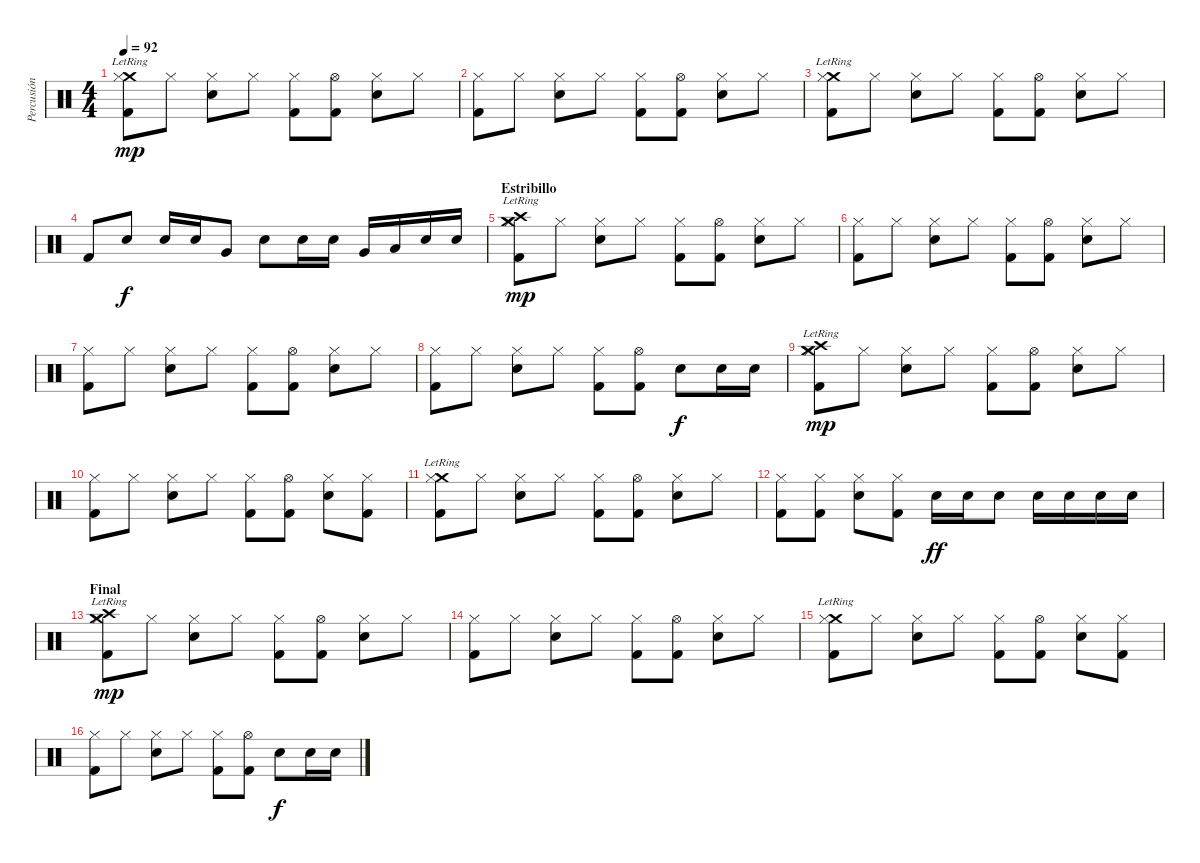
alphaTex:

\track ("Percusión" "Percusión") {instrument percussion}
\staff {score}
\articulation defaults
\ts (4 4)
\tempo 92
\clef neutral
\ks c
("Crash medium (hit)"{lr} "Kick (hit) 2" "Hi-Hat (closed)").8{dy mp} "Hi-Hat (closed)".8 ("Snare (hit) 2" "Hi-Hat (closed)").8 "Hi-Hat (closed)".8 ("Kick (hit) 2" "Hi-Hat (closed)").8 ("Kick (hit) 2" "Hi-Hat (open)").8 ("Snare (hit) 2" "Hi-Hat (closed)").8 "Hi-Hat (closed)".8 |
("Kick (hit) 2" "Hi-Hat (closed)").8 "Hi-Hat (closed)".8 ("Snare (hit) 2" "Hi-Hat (closed)").8 "Hi-Hat (closed)".8 ("Kick (hit) 2" "Hi-Hat (closed)").8 ("Kick (hit) 2" "Hi-Hat (open)").8 ("Snare (hit) 2" "Hi-Hat (closed)").8 "Hi-Hat (closed)".8 |
("Crash medium (hit)"{lr} "Kick (hit) 2" "Hi-Hat (closed)").8 "Hi-Hat (closed)".8 ("Snare (hit) 2" "Hi-Hat (closed)").8 "Hi-Hat (closed)".8 ("Kick (hit) 2" "Hi-Hat (closed)").8 ("Kick (hit) 2" "Hi-Hat (open)").8 ("Snare (hit) 2" "Hi-Hat (closed)").8 "Hi-Hat (closed)".8 |
"Kick (hit) 2".8 "Snare (hit) 2".8{dy f} "Snare (hit) 2".16 "Snare (hit) 2".16 "Very Low Tom (hit)".8 "Snare (hit) 2".8 "Snare (hit) 2".16 "Snare (hit) 2".16 "Very Low Tom (hit)".16 "Low Floor Tom (hit)".16 "Snare (hit) 2".16 "Snare (hit) 2".16 |
\section ("" "Estribillo")
("Crash high (hit)"{lr} "Crash medium (hit)" "Kick (hit) 2" "Hi-Hat (closed)").8{dy mp} "Hi-Hat (closed)".8 ("Snare (hit) 2" "Hi-Hat (closed)").8 "Hi-Hat (closed)".8 ("Kick (hit) 2" "Hi-Hat (closed)").8 ("Kick (hit) 2" "Hi-Hat (open)").8 ("Snare (hit) 2" "Hi-Hat (closed)").8 "Hi-Hat (closed)".8 |
("Kick (hit) 2" "Hi-Hat (closed)").8 "Hi-Hat (closed)".8 ("Snare (hit) 2" "Hi-Hat (closed)").8 "Hi-Hat (closed)".8 ("Kick (hit) 2" "Hi-Hat (closed)").8 ("Kick (hit) 2" "Hi-Hat (open)").8 ("Snare (hit) 2" "Hi-Hat (closed)").8 "Hi-Hat (closed)".8 |
("Kick (hit) 2" "Hi-Hat (closed)").8 "Hi-Hat (closed)".8 ("Snare (hit) 2" "Hi-Hat (closed)").8 "Hi-Hat (closed)".8 ("Kick (hit) 2" "Hi-Hat (closed)").8 ("Kick (hit) 2" "Hi-Hat (open)").8 ("Snare (hit) 2" "Hi-Hat (closed)").8 "Hi-Hat (closed)".8 |
("Kick (hit) 2" "Hi-Hat (closed)").8 "Hi-Hat (closed)".8 ("Snare (hit) 2" "Hi-Hat (closed)").8 "Hi-Hat (closed)".8 ("Kick (hit) 2" "Hi-Hat (closed)").8 ("Kick (hit) 2" "Hi-Hat (open)").8 "Snare (hit) 2".8{dy f} "Snare (hit) 2".16 "Snare (hit) 2".16 |
("Crash high (hit)"{lr} "Crash medium (hit)" "Kick (hit) 2" "Hi-Hat (closed)").8{dy mp} "Hi-Hat (closed)".8 ("Snare (hit) 2" "Hi-Hat (closed)").8 "Hi-Hat (closed)".8 ("Kick (hit) 2" "Hi-Hat (closed)").8 ("Kick (hit) 2" "Hi-Hat (open)").8 ("Snare (hit) 2" "Hi-Hat (closed)").8 "Hi-Hat (closed)".8 |
("Kick (hit) 2" "Hi-Hat (closed)").8 "Hi-Hat (closed)".8 ("Snare (hit) 2" "Hi-Hat (closed)").8 "Hi-Hat (closed)".8 ("Kick (hit) 2" "Hi-Hat (closed)").8 ("Kick (hit) 2" "Hi-Hat (open)").8 ("Snare (hit) 2" "Hi-Hat (closed)").8 ("Kick (hit) 2" "Hi-Hat (closed)").8 |
("Crash medium (hit)"{lr} "Kick (hit) 2" "Hi-Hat (closed)").8 "Hi-Hat (closed)".8 ("Snare (hit) 2" "Hi-Hat (closed)").8 "Hi-Hat (closed)".8 ("Kick (hit) 2" "Hi-Hat (closed)").8 ("Kick (hit) 2" "Hi-Hat (open)").8 ("Snare (hit) 2" "Hi-Hat (closed)").8 "Hi-Hat (closed)".8 |
("Kick (hit) 2" "Hi-Hat (closed)").8 ("Kick (hit) 2" "Hi-Hat (closed)").8 ("Snare (hit) 2" "Hi-Hat (closed)").8 ("Kick (hit) 2" "Hi-Hat (closed)").8 "Snare (hit) 2".16{dy ff} "Snare (hit) 2".16 "Snare (hit) 2".8 "Snare (hit) 2".16 "Snare (hit) 2".16 "Snare (hit) 2".16 "Snare (hit) 2".16 |
\section ("" "Final")
("Crash high (hit)"{lr} "Crash medium (hit)" "Kick (hit) 2" "Hi-Hat (closed)").8{dy mp} "Hi-Hat (closed)".8 ("Snare (hit) 2" "Hi-Hat (closed)").8 "Hi-Hat (closed)".8 ("Kick (hit) 2" "Hi-Hat (closed)").8 ("Kick (hit) 2" "Hi-Hat (open)").8 ("Snare (hit) 2" "Hi-Hat (closed)").8 "Hi-Hat (closed)".8 |
("Kick (hit) 2" "Hi-Hat (closed)").8 "Hi-Hat (closed)".8 ("Snare (hit) 2" "Hi-Hat (closed)").8 "Hi-Hat (closed)".8 ("Kick (hit) 2" "Hi-Hat (closed)").8 ("Kick (hit) 2" "Hi-Hat (open)").8 ("Snare (hit) 2" "Hi-Hat (closed)").8 "Hi-Hat (closed)".8 |
("Crash medium (hit)"{lr} "Kick (hit) 2" "Hi-Hat (closed)").8 "Hi-Hat (closed)".8 ("Snare (hit) 2" "Hi-Hat (closed)").8 "Hi-Hat (closed)".8 ("Kick (hit) 2" "Hi-Hat (closed)").8 ("Kick (hit) 2" "Hi-Hat (open)").8 ("Snare (hit) 2" "Hi-Hat (closed)").8 ("Kick (hit) 2" "Hi-Hat (closed)").8 |
("Kick (hit) 2" "Hi-Hat (closed)").8 "Hi-Hat (closed)".8 ("Snare (hit) 2" "Hi-Hat (closed)").8 "Hi-Hat (closed)".8 ("Kick (hit) 2" "Hi-Hat (closed)").8 ("Kick (hit) 2" "Hi-Hat (open)").8 "Snare (hit) 2".8{dy f} "Snare (hit) 2".16 "Snare (hit) 2".16
